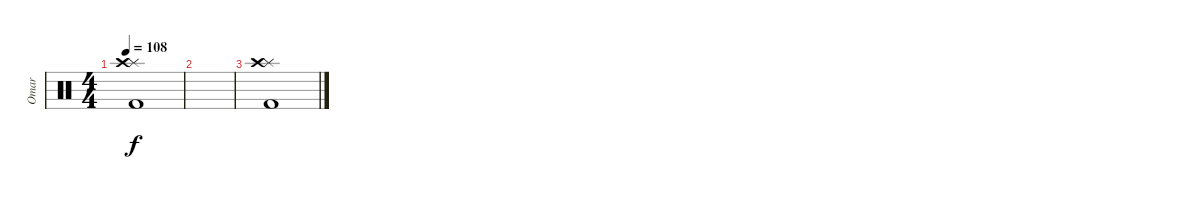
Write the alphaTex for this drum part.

\track ("Omar" "Omar") {instrument percussion}
\staff {score}
\articulation defaults
\ts (4 4)
\tempo 108
\clef neutral
\ks c
("Splash (hit)" "Crash high (hit)" "Kick (hit) 2").1{dy f} |
|
("Splash (hit)" "Crash high (hit)" "Kick (hit) 2").1
